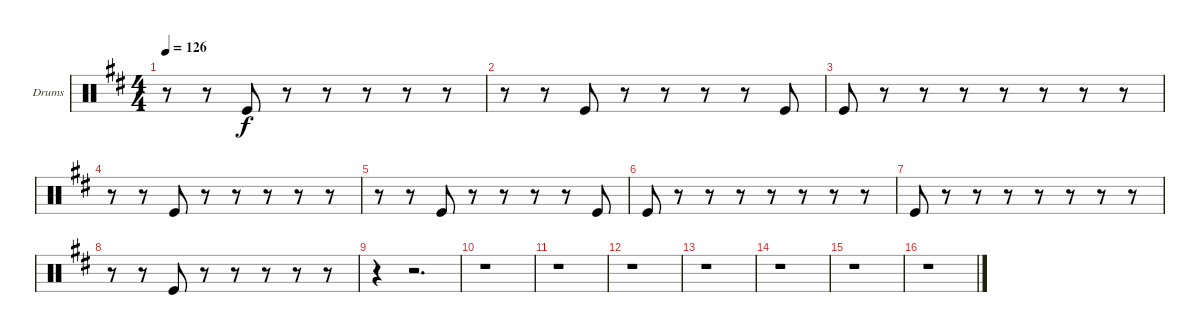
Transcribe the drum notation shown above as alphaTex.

\bracketExtendMode groupsimilarinstruments
\firstSystemTrackNameOrientation horizontal
\otherSystemsTrackNameOrientation horizontal
\track ("Drumkit" "Drums") {instrument percussion}
\staff {score}
\articulation defaults
\ts (4 4)
\tempo 126
\clef neutral
\ks d
r.8{dy f} r.8 "Kick (hit)".8 r.8 r.8 r.8 r.8 r.8 |
r.8 r.8 "Kick (hit)".8 r.8 r.8 r.8 r.8 "Kick (hit)".8 |
"Kick (hit)".8 r.8 r.8 r.8 r.8 r.8 r.8 r.8 |
r.8 r.8 "Kick (hit)".8 r.8 r.8 r.8 r.8 r.8 |
r.8 r.8 "Kick (hit)".8 r.8 r.8 r.8 r.8 "Kick (hit)".8 |
"Kick (hit)".8 r.8 r.8 r.8 r.8 r.8 r.8 r.8 |
"Kick (hit)".8 r.8 r.8 r.8 r.8 r.8 r.8 r.8 |
r.8 r.8 "Kick (hit)".8 r.8 r.8 r.8 r.8 r.8 |
r.4 r.2{d} |
r.1 |
r.1 |
r.1 |
r.1 |
r.1 |
r.1 |
r.1
